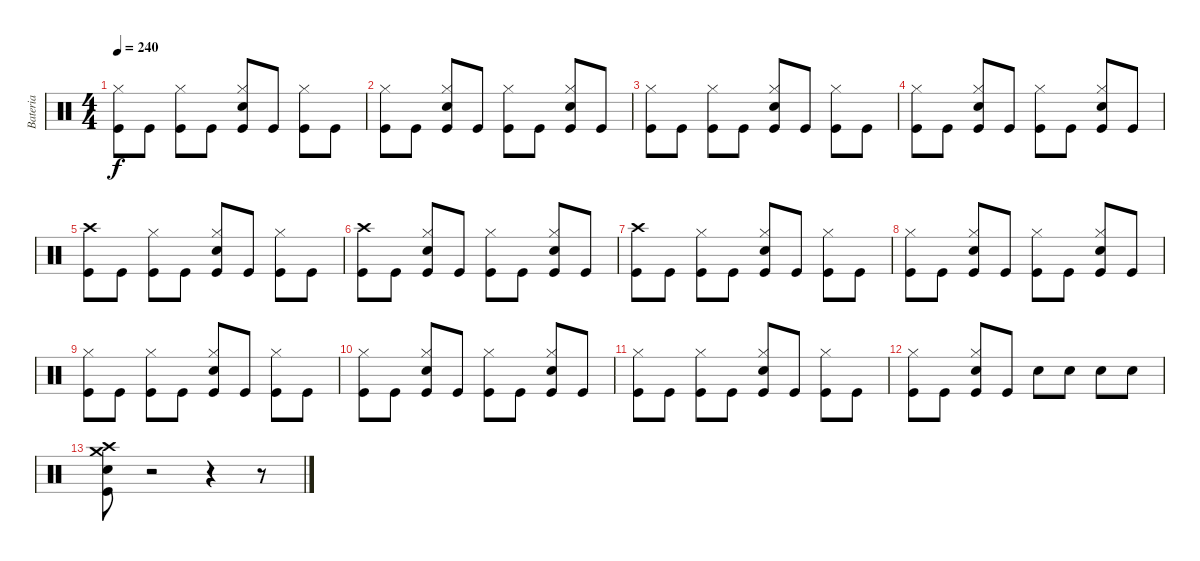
\track ("Bateria" "Bateria") {instrument percussion}
\staff {score}
\articulation defaults
\ts (4 4)
\tempo 240
\clef neutral
\ks c
("Kick (hit)" "Hi-Hat (closed)").8{dy f} "Kick (hit)".8 ("Kick (hit)" "Hi-Hat (closed)").8 "Kick (hit)".8 ("Kick (hit)" "Electric Snare (hit)" "Hi-Hat (closed)").8 "Kick (hit)".8 ("Kick (hit)" "Hi-Hat (closed)").8 "Kick (hit)".8 |
("Kick (hit)" "Hi-Hat (closed)").8 "Kick (hit)".8 ("Kick (hit)" "Electric Snare (hit)" "Hi-Hat (closed)").8 "Kick (hit)".8 ("Kick (hit)" "Hi-Hat (closed)").8 "Kick (hit)".8 ("Kick (hit)" "Electric Snare (hit)" "Hi-Hat (closed)").8 "Kick (hit)".8 |
("Kick (hit)" "Hi-Hat (closed)").8 "Kick (hit)".8 ("Kick (hit)" "Hi-Hat (closed)").8 "Kick (hit)".8 ("Kick (hit)" "Electric Snare (hit)" "Hi-Hat (closed)").8 "Kick (hit)".8 ("Kick (hit)" "Hi-Hat (closed)").8 "Kick (hit)".8 |
("Kick (hit)" "Hi-Hat (closed)").8 "Kick (hit)".8 ("Kick (hit)" "Electric Snare (hit)" "Hi-Hat (closed)").8 "Kick (hit)".8 ("Kick (hit)" "Hi-Hat (closed)").8 "Kick (hit)".8 ("Kick (hit)" "Electric Snare (hit)" "Hi-Hat (closed)").8 "Kick (hit)".8 |
("Kick (hit)" "Crash high (hit)").8 "Kick (hit)".8 ("Kick (hit)" "Hi-Hat (closed)").8 "Kick (hit)".8 ("Kick (hit)" "Electric Snare (hit)" "Hi-Hat (closed)").8 "Kick (hit)".8 ("Kick (hit)" "Hi-Hat (closed)").8 "Kick (hit)".8 |
("Kick (hit)" "Crash high (hit)").8 "Kick (hit)".8 ("Kick (hit)" "Electric Snare (hit)" "Hi-Hat (closed)").8 "Kick (hit)".8 ("Kick (hit)" "Hi-Hat (closed)").8 "Kick (hit)".8 ("Kick (hit)" "Electric Snare (hit)" "Hi-Hat (closed)").8 "Kick (hit)".8 |
("Kick (hit)" "Crash high (hit)").8 "Kick (hit)".8 ("Kick (hit)" "Hi-Hat (closed)").8 "Kick (hit)".8 ("Kick (hit)" "Electric Snare (hit)" "Hi-Hat (closed)").8 "Kick (hit)".8 ("Kick (hit)" "Hi-Hat (closed)").8 "Kick (hit)".8 |
("Kick (hit)" "Hi-Hat (closed)").8 "Kick (hit)".8 ("Kick (hit)" "Electric Snare (hit)" "Hi-Hat (closed)").8 "Kick (hit)".8 ("Kick (hit)" "Hi-Hat (closed)").8 "Kick (hit)".8 ("Kick (hit)" "Electric Snare (hit)" "Hi-Hat (closed)").8 "Kick (hit)".8 |
("Kick (hit)" "Hi-Hat (closed)").8 "Kick (hit)".8 ("Kick (hit)" "Hi-Hat (closed)").8 "Kick (hit)".8 ("Kick (hit)" "Electric Snare (hit)" "Hi-Hat (closed)").8 "Kick (hit)".8 ("Kick (hit)" "Hi-Hat (closed)").8 "Kick (hit)".8 |
("Kick (hit)" "Hi-Hat (closed)").8 "Kick (hit)".8 ("Kick (hit)" "Electric Snare (hit)" "Hi-Hat (closed)").8 "Kick (hit)".8 ("Kick (hit)" "Hi-Hat (closed)").8 "Kick (hit)".8 ("Kick (hit)" "Electric Snare (hit)" "Hi-Hat (closed)").8 "Kick (hit)".8 |
("Kick (hit)" "Hi-Hat (closed)").8 "Kick (hit)".8 ("Kick (hit)" "Hi-Hat (closed)").8 "Kick (hit)".8 ("Kick (hit)" "Electric Snare (hit)" "Hi-Hat (closed)").8 "Kick (hit)".8 ("Kick (hit)" "Hi-Hat (closed)").8 "Kick (hit)".8 |
("Kick (hit)" "Hi-Hat (closed)").8 "Kick (hit)".8 ("Kick (hit)" "Electric Snare (hit)" "Hi-Hat (closed)").8 "Kick (hit)".8 "Electric Snare (hit)".8 "Electric Snare (hit)".8 "Electric Snare (hit)".8 "Electric Snare (hit)".8 |
("Kick (hit)" "Electric Snare (hit)" "Crash high (hit)" "Crash medium (hit)").8 r.2 r.4 r.8
